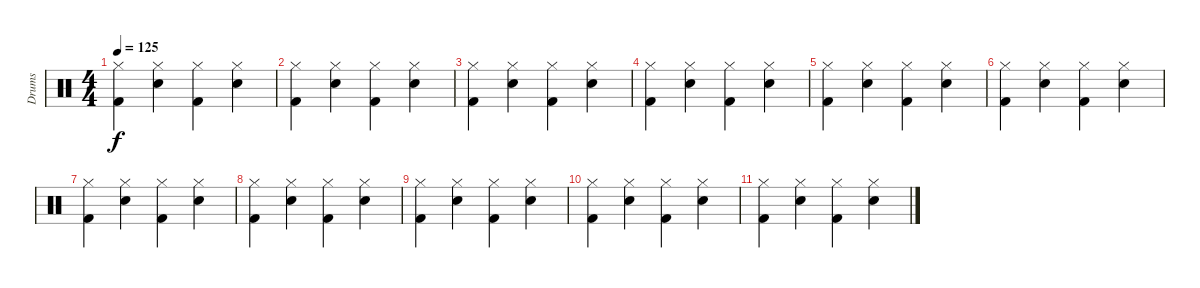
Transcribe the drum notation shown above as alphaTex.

\track ("Drums" "Drums") {instrument percussion}
\staff {score}
\articulation defaults
\ts (4 4)
\tempo 125
\clef neutral
\ks c
("Hi-Hat (closed)" "Kick (hit) 2").4{dy f} ("Hi-Hat (closed)" "Snare (hit) 2").4 ("Hi-Hat (closed)" "Kick (hit) 2").4 ("Hi-Hat (closed)" "Snare (hit) 2").4 |
("Hi-Hat (closed)" "Kick (hit) 2").4 ("Hi-Hat (closed)" "Snare (hit) 2").4 ("Hi-Hat (closed)" "Kick (hit) 2").4 ("Hi-Hat (closed)" "Snare (hit) 2").4 |
("Hi-Hat (closed)" "Kick (hit) 2").4 ("Hi-Hat (closed)" "Snare (hit) 2").4 ("Hi-Hat (closed)" "Kick (hit) 2").4 ("Hi-Hat (closed)" "Snare (hit) 2").4 |
("Hi-Hat (closed)" "Kick (hit) 2").4 ("Hi-Hat (closed)" "Snare (hit) 2").4 ("Hi-Hat (closed)" "Kick (hit) 2").4 ("Hi-Hat (closed)" "Snare (hit) 2").4 |
("Hi-Hat (closed)" "Kick (hit) 2").4 ("Hi-Hat (closed)" "Snare (hit) 2").4 ("Hi-Hat (closed)" "Kick (hit) 2").4 ("Hi-Hat (closed)" "Snare (hit) 2").4 |
("Hi-Hat (closed)" "Kick (hit) 2").4 ("Hi-Hat (closed)" "Snare (hit) 2").4 ("Hi-Hat (closed)" "Kick (hit) 2").4 ("Hi-Hat (closed)" "Snare (hit) 2").4 |
("Hi-Hat (closed)" "Kick (hit) 2").4 ("Hi-Hat (closed)" "Snare (hit) 2").4 ("Hi-Hat (closed)" "Kick (hit) 2").4 ("Hi-Hat (closed)" "Snare (hit) 2").4 |
("Hi-Hat (closed)" "Kick (hit) 2").4 ("Hi-Hat (closed)" "Snare (hit) 2").4 ("Hi-Hat (closed)" "Kick (hit) 2").4 ("Hi-Hat (closed)" "Snare (hit) 2").4 |
("Hi-Hat (closed)" "Kick (hit) 2").4 ("Hi-Hat (closed)" "Snare (hit) 2").4 ("Hi-Hat (closed)" "Kick (hit) 2").4 ("Hi-Hat (closed)" "Snare (hit) 2").4 |
("Hi-Hat (closed)" "Kick (hit) 2").4 ("Hi-Hat (closed)" "Snare (hit) 2").4 ("Hi-Hat (closed)" "Kick (hit) 2").4 ("Hi-Hat (closed)" "Snare (hit) 2").4 |
("Hi-Hat (closed)" "Kick (hit) 2").4 ("Hi-Hat (closed)" "Snare (hit) 2").4 ("Hi-Hat (closed)" "Kick (hit) 2").4 ("Hi-Hat (closed)" "Snare (hit) 2").4
